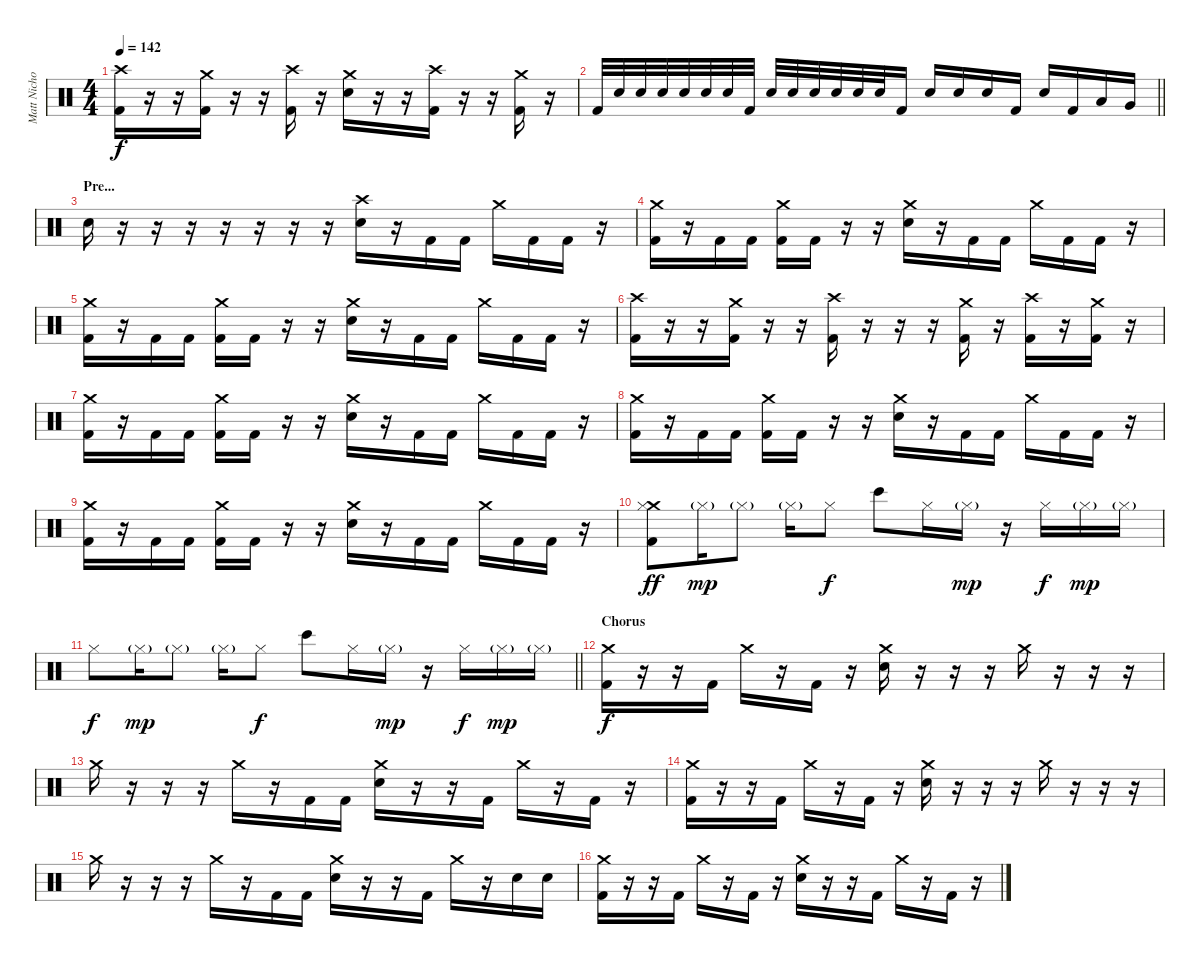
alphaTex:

\track ("Matt Nicholls" "Matt Nicho") {instrument percussion}
\staff {score}
\articulation defaults
\ts (4 4)
\tempo 142
\clef neutral
\ks c
("Crash high (hit)" "Kick (hit) 2").16{dy f} r.16 r.16 ("Crash medium (hit)" "Kick (hit) 2").16 r.16 r.16 ("Crash high (hit)" "Kick (hit) 2").16 r.16 ("Crash medium (hit)" "Electric Snare (hit)").16 r.16 r.16 ("Crash high (hit)" "Kick (hit) 2").16 r.16 r.16 ("Crash medium (hit)" "Kick (hit) 2").16 r.16 |
\barLineRight lightlight "Kick (hit) 2".32 "Electric Snare (hit)".32 "Electric Snare (hit)".32 "Electric Snare (hit)".32 "Electric Snare (hit)".32 "Electric Snare (hit)".32 "Electric Snare (hit)".32 "Kick (hit) 2".32 "Electric Snare (hit)".32 "Electric Snare (hit)".32 "Electric Snare (hit)".32 "Electric Snare (hit)".32 "Electric Snare (hit)".32 "Electric Snare (hit)".32 "Kick (hit) 2".16 "Electric Snare (hit)".16 "Electric Snare (hit)".16 "Electric Snare (hit)".16 "Kick (hit) 2".16 "Electric Snare (hit)".16 "Kick (hit) 2".16 "Low Tom (hit)".16 "Very Low Tom (hit)".16
|
\section ("" "Pre...")
"Electric Snare (hit)".16 r.16 r.16 r.16 r.16 r.16 r.16 r.16 ("Crash high (hit)" "Electric Snare (hit)").16 r.16 "Kick (hit) 2".16 "Kick (hit) 2".16 "Crash medium (hit)".16 "Kick (hit) 2".16 "Kick (hit) 2".16 r.16 |
("Crash medium (hit)" "Kick (hit) 2").16 r.16 "Kick (hit) 2".16 "Kick (hit) 2".16 ("Crash medium (hit)" "Kick (hit) 2").16 "Kick (hit) 2".16 r.16 r.16 ("Crash medium (hit)" "Electric Snare (hit)").16 r.16 "Kick (hit) 2".16 "Kick (hit) 2".16 "Crash medium (hit)".16 "Kick (hit) 2".16 "Kick (hit) 2".16 r.16 |
("Crash medium (hit)" "Kick (hit) 2").16 r.16 "Kick (hit) 2".16 "Kick (hit) 2".16 ("Crash medium (hit)" "Kick (hit) 2").16 "Kick (hit) 2".16 r.16 r.16 ("Crash medium (hit)" "Electric Snare (hit)").16 r.16 "Kick (hit) 2".16 "Kick (hit) 2".16 "Crash medium (hit)".16 "Kick (hit) 2".16 "Kick (hit) 2".16 r.16 |
("Crash high (hit)" "Kick (hit) 2").16 r.16 r.16 ("Crash medium (hit)" "Kick (hit) 2").16 r.16 r.16 ("Crash high (hit)" "Kick (hit) 2").16 r.16 r.16 r.16 ("Crash medium (hit)" "Kick (hit) 2").16 r.16 ("Crash high (hit)" "Kick (hit) 2").16 r.16 ("Crash medium (hit)" "Kick (hit) 2").16 r.16 |
("Crash medium (hit)" "Kick (hit) 2").16 r.16 "Kick (hit) 2".16 "Kick (hit) 2".16 ("Crash medium (hit)" "Kick (hit) 2").16 "Kick (hit) 2".16 r.16 r.16 ("Crash medium (hit)" "Electric Snare (hit)").16 r.16 "Kick (hit) 2".16 "Kick (hit) 2".16 "Crash medium (hit)".16 "Kick (hit) 2".16 "Kick (hit) 2".16 r.16 |
("Crash medium (hit)" "Kick (hit) 2").16 r.16 "Kick (hit) 2".16 "Kick (hit) 2".16 ("Crash medium (hit)" "Kick (hit) 2").16 "Kick (hit) 2".16 r.16 r.16 ("Crash medium (hit)" "Electric Snare (hit)").16 r.16 "Kick (hit) 2".16 "Kick (hit) 2".16 "Crash medium (hit)".16 "Kick (hit) 2".16 "Kick (hit) 2".16 r.16 |
("Crash medium (hit)" "Kick (hit) 2").16 r.16 "Kick (hit) 2".16 "Kick (hit) 2".16 ("Crash medium (hit)" "Kick (hit) 2").16 "Kick (hit) 2".16 r.16 r.16 ("Crash medium (hit)" "Electric Snare (hit)").16 r.16 "Kick (hit) 2".16 "Kick (hit) 2".16 "Crash medium (hit)".16 "Kick (hit) 2".16 "Kick (hit) 2".16 r.16 |
("Crash medium (hit)" "Kick (hit) 2" "Hi-Hat (closed)").8{dy ff} "Hi-Hat (closed)"{g}.16{dy mp} "Hi-Hat (closed)"{g}.8 "Hi-Hat (closed)"{g}.16 "Hi-Hat (closed)".8{dy f} "Bongo High (hit)".8 "Hi-Hat (closed)".16 "Hi-Hat (closed)"{g}.16{dy mp} r.16 "Hi-Hat (closed)".16{dy f} "Hi-Hat (closed)"{g}.16{dy mp} "Hi-Hat (closed)"{g}.16 |
\barLineRight lightlight "Hi-Hat (closed)".8{dy f} "Hi-Hat (closed)"{g}.16{dy mp} "Hi-Hat (closed)"{g}.8 "Hi-Hat (closed)"{g}.16 "Hi-Hat (closed)".8{dy f} "Bongo High (hit)".8 "Hi-Hat (closed)".16 "Hi-Hat (closed)"{g}.16{dy mp}
r.16 "Hi-Hat (closed)".16{dy f} "Hi-Hat (closed)"{g}.16{dy mp} "Hi-Hat (closed)"{g}.16 |
\section ("" "Chorus")
("Crash medium (hit)" "Kick (hit) 2").16{dy f} r.16 r.16 "Kick (hit) 2".16 "Crash medium (hit)".16 r.16 "Kick (hit) 2".16 r.16 ("Crash medium (hit)" "Electric Snare (hit)").16 r.16 r.16 r.16 "Crash medium (hit)".16 r.16 r.16 r.16 |
"Crash medium (hit)".16 r.16 r.16 r.16 "Crash medium (hit)".16 r.16 "Kick (hit) 2".16 "Kick (hit) 2".16 ("Crash medium (hit)" "Electric Snare (hit)").16 r.16 r.16 "Kick (hit) 2".16 "Crash medium (hit)".16 r.16 "Kick (hit) 2".16 r.16 |
("Crash medium (hit)" "Kick (hit) 2").16 r.16 r.16 "Kick (hit) 2".16 "Crash medium (hit)".16 r.16 "Kick (hit) 2".16 r.16 ("Crash medium (hit)" "Electric Snare (hit)").16 r.16 r.16 r.16 "Crash medium (hit)".16 r.16 r.16 r.16 |
"Crash medium (hit)".16 r.16 r.16 r.16 "Crash medium (hit)".16 r.16 "Kick (hit) 2".16 "Kick (hit) 2".16 ("Crash medium (hit)" "Electric Snare (hit)").16 r.16 r.16 "Kick (hit) 2".16 "Crash medium (hit)".16 r.16 "Electric Snare (hit)".16 "Electric Snare (hit)".16 |
("Crash medium (hit)" "Kick (hit) 2").16 r.16 r.16 "Kick (hit) 2".16 "Crash medium (hit)".16 r.16 "Kick (hit) 2".16 r.16 ("Crash medium (hit)" "Electric Snare (hit)").16 r.16 r.16 "Kick (hit) 2".16 "Crash medium (hit)".16 r.16 "Kick (hit) 2".16 r.16
